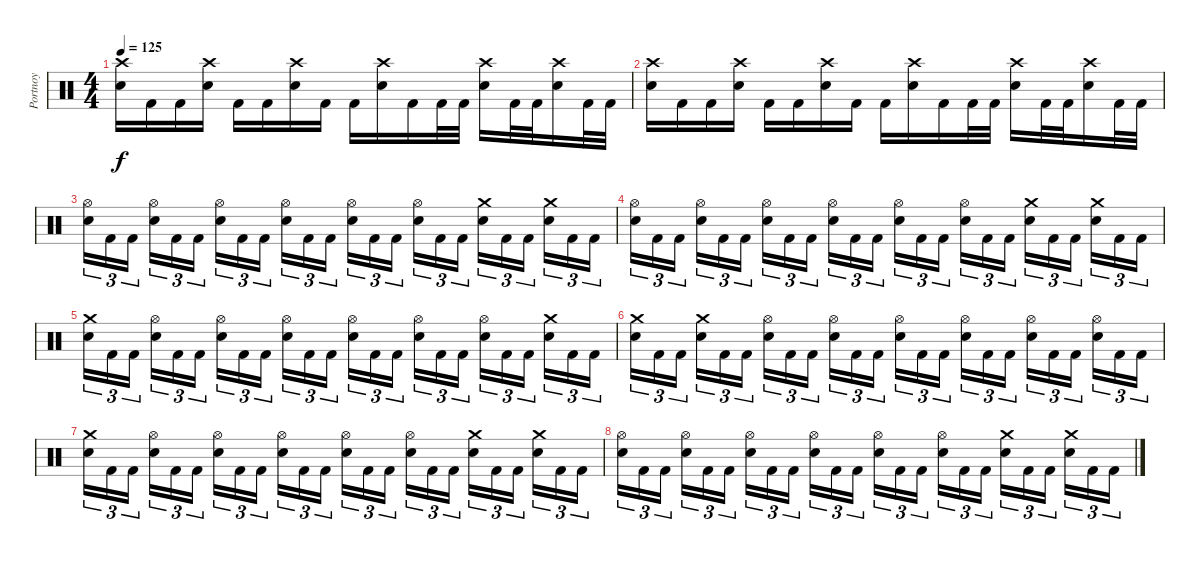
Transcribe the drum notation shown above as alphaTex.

\track ("Portnoy" "Portnoy") {instrument percussion}
\staff {score}
\articulation defaults
\ts (4 4)
\tempo 125
\clef neutral
\ks c
("Crash high (hit)" "Snare (hit) 2").16{dy f} "Kick (hit) 2".16 "Kick (hit) 2".16 ("Crash high (hit)" "Snare (hit) 2").16 "Kick (hit) 2".16 "Kick (hit) 2".16 ("Crash high (hit)" "Snare (hit) 2").16 "Kick (hit) 2".16 "Kick (hit) 2".16 ("Crash high (hit)" "Snare (hit) 2").16 "Kick (hit) 2".16 "Kick (hit) 2".32 "Kick (hit) 2".32 ("Crash high (hit)" "Snare (hit) 2").16 "Kick (hit) 2".32 "Kick (hit) 2".32 ("Crash high (hit)" "Snare (hit) 2").16 "Kick (hit) 2".32 "Kick (hit) 2".32 |
("Crash high (hit)" "Snare (hit) 2").16 "Kick (hit) 2".16 "Kick (hit) 2".16 ("Crash high (hit)" "Snare (hit) 2").16 "Kick (hit) 2".16 "Kick (hit) 2".16 ("Crash high (hit)" "Snare (hit) 2").16 "Kick (hit) 2".16 "Kick (hit) 2".16 ("Crash high (hit)" "Snare (hit) 2").16 "Kick (hit) 2".16 "Kick (hit) 2".32 "Kick (hit) 2".32 ("Crash high (hit)" "Snare (hit) 2").16 "Kick (hit) 2".32 "Kick (hit) 2".32 ("Crash high (hit)" "Snare (hit) 2").16 "Kick (hit) 2".32 "Kick (hit) 2".32 |
("Hi-Hat (open)" "Snare (hit) 2").16{tu (3 2)} "Kick (hit) 2".16{tu (3 2)} "Kick (hit) 2".16{tu (3 2)} ("Hi-Hat (open)" "Snare (hit) 2").16{tu (3 2)} "Kick (hit) 2".16{tu (3 2)} "Kick (hit) 2".16{tu (3 2)} ("Hi-Hat (open)" "Snare (hit) 2").16{tu (3 2)} "Kick (hit) 2".16{tu (3 2)} "Kick (hit) 2".16{tu (3 2)} ("Hi-Hat (open)" "Snare (hit) 2").16{tu (3 2)} "Kick (hit) 2".16{tu (3 2)} "Kick (hit) 2".16{tu (3 2)} ("Hi-Hat (open)" "Snare (hit) 2").16{tu (3 2)} "Kick (hit) 2".16{tu (3 2)} "Kick (hit) 2".16{tu (3 2)} ("Hi-Hat (open)" "Snare (hit) 2").16{tu (3 2)} "Kick (hit) 2".16{tu (3 2)} "Kick (hit) 2".16{tu (3 2)} ("Crash medium (hit)" "Snare (hit) 2").16{tu (3 2)} "Kick (hit) 2".16{tu (3 2)} "Kick (hit) 2".16{tu (3 2)} ("Crash medium (hit)" "Snare (hit) 2").16{tu (3 2)} "Kick (hit) 2".16{tu (3 2)} "Kick (hit) 2".16{tu (3 2)} |
("Hi-Hat (open)" "Snare (hit) 2").16{tu (3 2)} "Kick (hit) 2".16{tu (3 2)} "Kick (hit) 2".16{tu (3 2)} ("Hi-Hat (open)" "Snare (hit) 2").16{tu (3 2)} "Kick (hit) 2".16{tu (3 2)} "Kick (hit) 2".16{tu (3 2)} ("Hi-Hat (open)" "Snare (hit) 2").16{tu (3 2)} "Kick (hit) 2".16{tu (3 2)} "Kick (hit) 2".16{tu (3 2)} ("Hi-Hat (open)" "Snare (hit) 2").16{tu (3 2)} "Kick (hit) 2".16{tu (3 2)} "Kick (hit) 2".16{tu (3 2)} ("Hi-Hat (open)" "Snare (hit) 2").16{tu (3 2)} "Kick (hit) 2".16{tu (3 2)} "Kick (hit) 2".16{tu (3 2)} ("Hi-Hat (open)" "Snare (hit) 2").16{tu (3 2)} "Kick (hit) 2".16{tu (3 2)} "Kick (hit) 2".16{tu (3 2)} ("Crash medium (hit)" "Snare (hit) 2").16{tu (3 2)} "Kick (hit) 2".16{tu (3 2)} "Kick (hit) 2".16{tu (3 2)} ("Crash medium (hit)" "Snare (hit) 2").16{tu (3 2)} "Kick (hit) 2".16{tu (3 2)} "Kick (hit) 2".16{tu (3 2)} |
("Crash medium (hit)" "Snare (hit) 2").16{tu (3 2)} "Kick (hit) 2".16{tu (3 2)} "Kick (hit) 2".16{tu (3 2)} ("Hi-Hat (open)" "Snare (hit) 2").16{tu (3 2)} "Kick (hit) 2".16{tu (3 2)} "Kick (hit) 2".16{tu (3 2)} ("Hi-Hat (open)" "Snare (hit) 2").16{tu (3 2)} "Kick (hit) 2".16{tu (3 2)} "Kick (hit) 2".16{tu (3 2)} ("Hi-Hat (open)" "Snare (hit) 2").16{tu (3 2)} "Kick (hit) 2".16{tu (3 2)} "Kick (hit) 2".16{tu (3 2)} ("Hi-Hat (open)" "Snare (hit) 2").16{tu (3 2)} "Kick (hit) 2".16{tu (3 2)} "Kick (hit) 2".16{tu (3 2)} ("Hi-Hat (open)" "Snare (hit) 2").16{tu (3 2)} "Kick (hit) 2".16{tu (3 2)} "Kick (hit) 2".16{tu (3 2)} ("Hi-Hat (open)" "Snare (hit) 2").16{tu (3 2)} "Kick (hit) 2".16{tu (3 2)} "Kick (hit) 2".16{tu (3 2)} ("Crash medium (hit)" "Snare (hit) 2").16{tu (3 2)} "Kick (hit) 2".16{tu (3 2)} "Kick (hit) 2".16{tu (3 2)} |
("Crash medium (hit)" "Snare (hit) 2").16{tu (3 2)} "Kick (hit) 2".16{tu (3 2)} "Kick (hit) 2".16{tu (3 2)} ("Crash medium (hit)" "Snare (hit) 2").16{tu (3 2)} "Kick (hit) 2".16{tu (3 2)} "Kick (hit) 2".16{tu (3 2)} ("Hi-Hat (open)" "Snare (hit) 2").16{tu (3 2)} "Kick (hit) 2".16{tu (3 2)} "Kick (hit) 2".16{tu (3 2)} ("Hi-Hat (open)" "Snare (hit) 2").16{tu (3 2)} "Kick (hit) 2".16{tu (3 2)} "Kick (hit) 2".16{tu (3 2)} ("Hi-Hat (open)" "Snare (hit) 2").16{tu (3 2)} "Kick (hit) 2".16{tu (3 2)} "Kick (hit) 2".16{tu (3 2)} ("Hi-Hat (open)" "Snare (hit) 2").16{tu (3 2)} "Kick (hit) 2".16{tu (3 2)} "Kick (hit) 2".16{tu (3 2)} ("Hi-Hat (open)" "Snare (hit) 2").16{tu (3 2)} "Kick (hit) 2".16{tu (3 2)} "Kick (hit) 2".16{tu (3 2)} ("Hi-Hat (open)" "Snare (hit) 2").16{tu (3 2)} "Kick (hit) 2".16{tu (3 2)} "Kick (hit) 2".16{tu (3 2)} |
("Crash medium (hit)" "Snare (hit) 2").16{tu (3 2)} "Kick (hit) 2".16{tu (3 2)} "Kick (hit) 2".16{tu (3 2)} ("Hi-Hat (open)" "Snare (hit) 2").16{tu (3 2)} "Kick (hit) 2".16{tu (3 2)} "Kick (hit) 2".16{tu (3 2)} ("Hi-Hat (open)" "Snare (hit) 2").16{tu (3 2)} "Kick (hit) 2".16{tu (3 2)} "Kick (hit) 2".16{tu (3 2)} ("Hi-Hat (open)" "Snare (hit) 2").16{tu (3 2)} "Kick (hit) 2".16{tu (3 2)} "Kick (hit) 2".16{tu (3 2)} ("Hi-Hat (open)" "Snare (hit) 2").16{tu (3 2)} "Kick (hit) 2".16{tu (3 2)} "Kick (hit) 2".16{tu (3 2)} ("Hi-Hat (open)" "Snare (hit) 2").16{tu (3 2)} "Kick (hit) 2".16{tu (3 2)} "Kick (hit) 2".16{tu (3 2)} ("Crash medium (hit)" "Snare (hit) 2").16{tu (3 2)} "Kick (hit) 2".16{tu (3 2)} "Kick (hit) 2".16{tu (3 2)} ("Crash medium (hit)" "Snare (hit) 2").16{tu (3 2)} "Kick (hit) 2".16{tu (3 2)} "Kick (hit) 2".16{tu (3 2)} |
("Hi-Hat (open)" "Snare (hit) 2").16{tu (3 2)} "Kick (hit) 2".16{tu (3 2)} "Kick (hit) 2".16{tu (3 2)} ("Hi-Hat (open)" "Snare (hit) 2").16{tu (3 2)} "Kick (hit) 2".16{tu (3 2)} "Kick (hit) 2".16{tu (3 2)} ("Hi-Hat (open)" "Snare (hit) 2").16{tu (3 2)} "Kick (hit) 2".16{tu (3 2)} "Kick (hit) 2".16{tu (3 2)} ("Hi-Hat (open)" "Snare (hit) 2").16{tu (3 2)} "Kick (hit) 2".16{tu (3 2)} "Kick (hit) 2".16{tu (3 2)} ("Hi-Hat (open)" "Snare (hit) 2").16{tu (3 2)} "Kick (hit) 2".16{tu (3 2)} "Kick (hit) 2".16{tu (3 2)} ("Hi-Hat (open)" "Snare (hit) 2").16{tu (3 2)} "Kick (hit) 2".16{tu (3 2)} "Kick (hit) 2".16{tu (3 2)} ("Crash medium (hit)" "Snare (hit) 2").16{tu (3 2)} "Kick (hit) 2".16{tu (3 2)} "Kick (hit) 2".16{tu (3 2)} ("Crash medium (hit)" "Snare (hit) 2").16{tu (3 2)} "Kick (hit) 2".16{tu (3 2)} "Kick (hit) 2".16{tu (3 2)}
